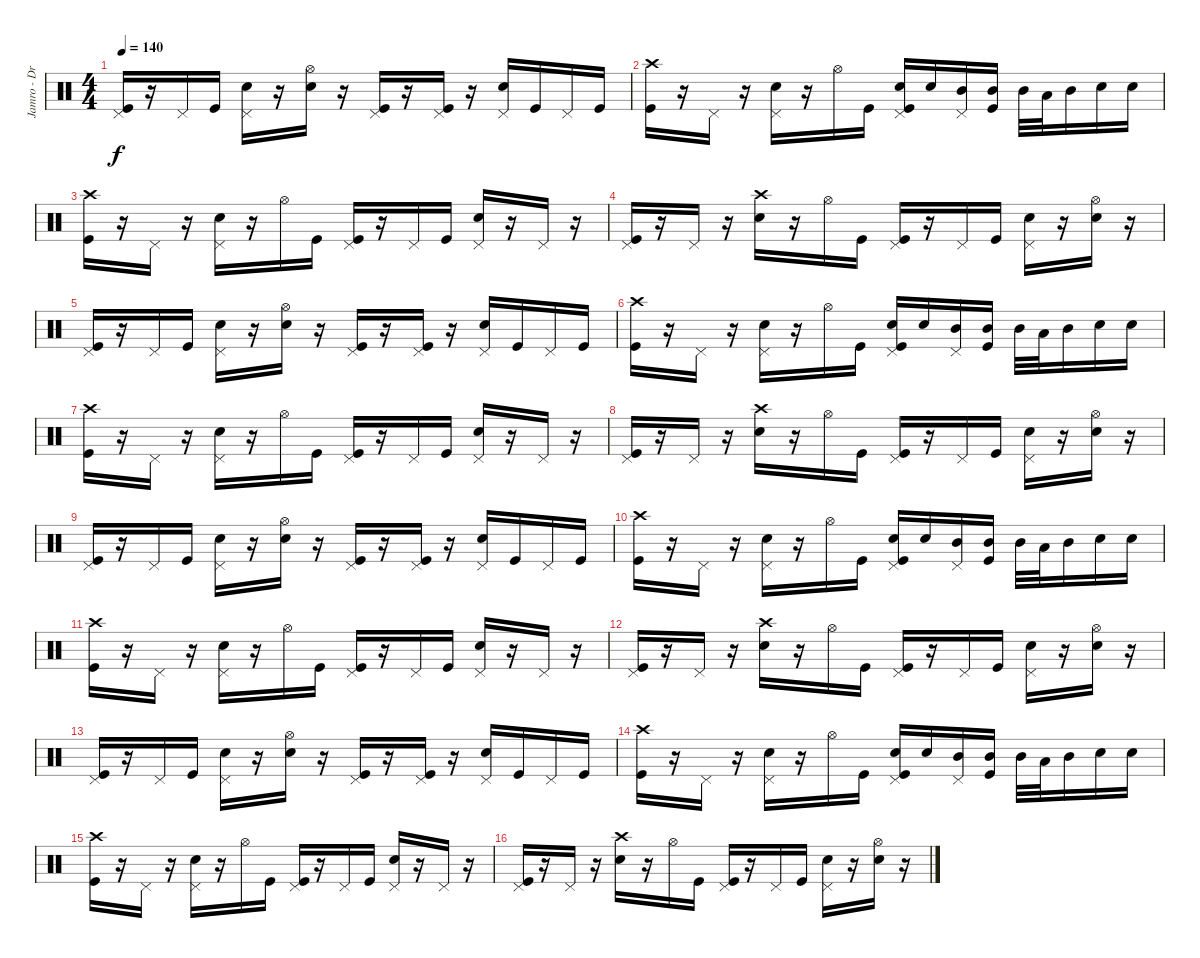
\track ("Jamro - Drums" "Jamro - Dr") {instrument percussion}
\staff {score}
\articulation defaults
\ts (4 4)
\tempo 140
\clef neutral
\ks c
("Kick (hit)" "Pedal Hi-Hat (hit)").16{dy f} r.16 "Pedal Hi-Hat (hit)".16 "Kick (hit)".16 ("Electric Snare (hit)" "Pedal Hi-Hat (hit)").16 r.16 ("Electric Snare (hit)" "Hi-Hat (open)").16 r.16 ("Kick (hit)" "Pedal Hi-Hat (hit)").16 r.16 ("Kick (hit)" "Pedal Hi-Hat (hit)").16 r.16 ("Electric Snare (hit)" "Pedal Hi-Hat (hit)").16 "Kick (hit)".16 "Pedal Hi-Hat (hit)".16 "Kick (hit)".16 |
("Kick (hit)" "Crash high (hit)").16 r.16 "Pedal Hi-Hat (hit)".16 r.16 ("Electric Snare (hit)" "Pedal Hi-Hat (hit)").16 r.16 "Hi-Hat (open)".16 "Kick (hit)".16 ("Kick (hit)" "Pedal Hi-Hat (hit)" "Electric Snare (hit)").16 "Electric Snare (hit)".16 ("Pedal Hi-Hat (hit)" "Mid Tom (hit)").16 ("Kick (hit)" "Mid Tom (hit)").16 "Mid Tom (hit)".32 "Low Tom (hit)".32 "Mid Tom (hit)".16 "Electric Snare (hit)".16 "Electric Snare (hit)".16 |
("Kick (hit)" "Crash high (hit)").16 r.16 "Pedal Hi-Hat (hit)".16 r.16 ("Electric Snare (hit)" "Pedal Hi-Hat (hit)").16 r.16 "Hi-Hat (open)".16 "Kick (hit)".16 ("Kick (hit)" "Pedal Hi-Hat (hit)").16 r.16 "Pedal Hi-Hat (hit)".16 "Kick (hit)".16 ("Electric Snare (hit)" "Pedal Hi-Hat (hit)").16 r.16 "Pedal Hi-Hat (hit)".16 r.16 |
("Kick (hit)" "Pedal Hi-Hat (hit)").16 r.16 "Pedal Hi-Hat (hit)".16 r.16 ("Electric Snare (hit)" "Crash high (hit)").16 r.16 "Hi-Hat (open)".16 "Kick (hit)".16 ("Kick (hit)" "Pedal Hi-Hat (hit)").16 r.16 "Pedal Hi-Hat (hit)".16 "Kick (hit)".16 ("Electric Snare (hit)" "Pedal Hi-Hat (hit)").16 r.16 ("Electric Snare (hit)" "Hi-Hat (open)").16 r.16 |
("Kick (hit)" "Pedal Hi-Hat (hit)").16 r.16 "Pedal Hi-Hat (hit)".16 "Kick (hit)".16 ("Electric Snare (hit)" "Pedal Hi-Hat (hit)").16 r.16 ("Electric Snare (hit)" "Hi-Hat (open)").16 r.16 ("Kick (hit)" "Pedal Hi-Hat (hit)").16 r.16 ("Kick (hit)" "Pedal Hi-Hat (hit)").16 r.16 ("Electric Snare (hit)" "Pedal Hi-Hat (hit)").16 "Kick (hit)".16 "Pedal Hi-Hat (hit)".16 "Kick (hit)".16 |
("Kick (hit)" "Crash high (hit)").16 r.16 "Pedal Hi-Hat (hit)".16 r.16 ("Electric Snare (hit)" "Pedal Hi-Hat (hit)").16 r.16 "Hi-Hat (open)".16 "Kick (hit)".16 ("Kick (hit)" "Pedal Hi-Hat (hit)" "Electric Snare (hit)").16 "Electric Snare (hit)".16 ("Pedal Hi-Hat (hit)" "Mid Tom (hit)").16 ("Kick (hit)" "Mid Tom (hit)").16 "Mid Tom (hit)".32 "Low Tom (hit)".32 "Mid Tom (hit)".16 "Electric Snare (hit)".16 "Electric Snare (hit)".16 |
("Kick (hit)" "Crash high (hit)").16 r.16 "Pedal Hi-Hat (hit)".16 r.16 ("Electric Snare (hit)" "Pedal Hi-Hat (hit)").16 r.16 "Hi-Hat (open)".16 "Kick (hit)".16 ("Kick (hit)" "Pedal Hi-Hat (hit)").16 r.16 "Pedal Hi-Hat (hit)".16 "Kick (hit)".16 ("Electric Snare (hit)" "Pedal Hi-Hat (hit)").16 r.16 "Pedal Hi-Hat (hit)".16 r.16 |
("Kick (hit)" "Pedal Hi-Hat (hit)").16 r.16 "Pedal Hi-Hat (hit)".16 r.16 ("Electric Snare (hit)" "Crash high (hit)").16 r.16 "Hi-Hat (open)".16 "Kick (hit)".16 ("Kick (hit)" "Pedal Hi-Hat (hit)").16 r.16 "Pedal Hi-Hat (hit)".16 "Kick (hit)".16 ("Electric Snare (hit)" "Pedal Hi-Hat (hit)").16 r.16 ("Electric Snare (hit)" "Hi-Hat (open)").16 r.16 |
("Kick (hit)" "Pedal Hi-Hat (hit)").16 r.16 "Pedal Hi-Hat (hit)".16 "Kick (hit)".16 ("Electric Snare (hit)" "Pedal Hi-Hat (hit)").16 r.16 ("Electric Snare (hit)" "Hi-Hat (open)").16 r.16 ("Kick (hit)" "Pedal Hi-Hat (hit)").16 r.16 ("Kick (hit)" "Pedal Hi-Hat (hit)").16 r.16 ("Electric Snare (hit)" "Pedal Hi-Hat (hit)").16 "Kick (hit)".16 "Pedal Hi-Hat (hit)".16 "Kick (hit)".16 |
("Kick (hit)" "Crash high (hit)").16 r.16 "Pedal Hi-Hat (hit)".16 r.16 ("Electric Snare (hit)" "Pedal Hi-Hat (hit)").16 r.16 "Hi-Hat (open)".16 "Kick (hit)".16 ("Kick (hit)" "Pedal Hi-Hat (hit)" "Electric Snare (hit)").16 "Electric Snare (hit)".16 ("Pedal Hi-Hat (hit)" "Mid Tom (hit)").16 ("Kick (hit)" "Mid Tom (hit)").16 "Mid Tom (hit)".32 "Low Tom (hit)".32 "Mid Tom (hit)".16 "Electric Snare (hit)".16 "Electric Snare (hit)".16 |
("Kick (hit)" "Crash high (hit)").16 r.16 "Pedal Hi-Hat (hit)".16 r.16 ("Electric Snare (hit)" "Pedal Hi-Hat (hit)").16 r.16 "Hi-Hat (open)".16 "Kick (hit)".16 ("Kick (hit)" "Pedal Hi-Hat (hit)").16 r.16 "Pedal Hi-Hat (hit)".16 "Kick (hit)".16 ("Electric Snare (hit)" "Pedal Hi-Hat (hit)").16 r.16 "Pedal Hi-Hat (hit)".16 r.16 |
("Kick (hit)" "Pedal Hi-Hat (hit)").16 r.16 "Pedal Hi-Hat (hit)".16 r.16 ("Electric Snare (hit)" "Crash high (hit)").16 r.16 "Hi-Hat (open)".16 "Kick (hit)".16 ("Kick (hit)" "Pedal Hi-Hat (hit)").16 r.16 "Pedal Hi-Hat (hit)".16 "Kick (hit)".16 ("Electric Snare (hit)" "Pedal Hi-Hat (hit)").16 r.16 ("Electric Snare (hit)" "Hi-Hat (open)").16 r.16 |
("Kick (hit)" "Pedal Hi-Hat (hit)").16 r.16 "Pedal Hi-Hat (hit)".16 "Kick (hit)".16 ("Electric Snare (hit)" "Pedal Hi-Hat (hit)").16 r.16 ("Electric Snare (hit)" "Hi-Hat (open)").16 r.16 ("Kick (hit)" "Pedal Hi-Hat (hit)").16 r.16 ("Kick (hit)" "Pedal Hi-Hat (hit)").16 r.16 ("Electric Snare (hit)" "Pedal Hi-Hat (hit)").16 "Kick (hit)".16 "Pedal Hi-Hat (hit)".16 "Kick (hit)".16 |
("Kick (hit)" "Crash high (hit)").16 r.16 "Pedal Hi-Hat (hit)".16 r.16 ("Electric Snare (hit)" "Pedal Hi-Hat (hit)").16 r.16 "Hi-Hat (open)".16 "Kick (hit)".16 ("Kick (hit)" "Pedal Hi-Hat (hit)" "Electric Snare (hit)").16 "Electric Snare (hit)".16 ("Pedal Hi-Hat (hit)" "Mid Tom (hit)").16 ("Kick (hit)" "Mid Tom (hit)").16 "Mid Tom (hit)".32 "Low Tom (hit)".32 "Mid Tom (hit)".16 "Electric Snare (hit)".16 "Electric Snare (hit)".16 |
("Kick (hit)" "Crash high (hit)").16 r.16 "Pedal Hi-Hat (hit)".16 r.16 ("Electric Snare (hit)" "Pedal Hi-Hat (hit)").16 r.16 "Hi-Hat (open)".16 "Kick (hit)".16 ("Kick (hit)" "Pedal Hi-Hat (hit)").16 r.16 "Pedal Hi-Hat (hit)".16 "Kick (hit)".16 ("Electric Snare (hit)" "Pedal Hi-Hat (hit)").16 r.16 "Pedal Hi-Hat (hit)".16 r.16 |
("Kick (hit)" "Pedal Hi-Hat (hit)").16 r.16 "Pedal Hi-Hat (hit)".16 r.16 ("Electric Snare (hit)" "Crash high (hit)").16 r.16 "Hi-Hat (open)".16 "Kick (hit)".16 ("Kick (hit)" "Pedal Hi-Hat (hit)").16 r.16 "Pedal Hi-Hat (hit)".16 "Kick (hit)".16 ("Electric Snare (hit)" "Pedal Hi-Hat (hit)").16 r.16 ("Electric Snare (hit)" "Hi-Hat (open)").16 r.16
